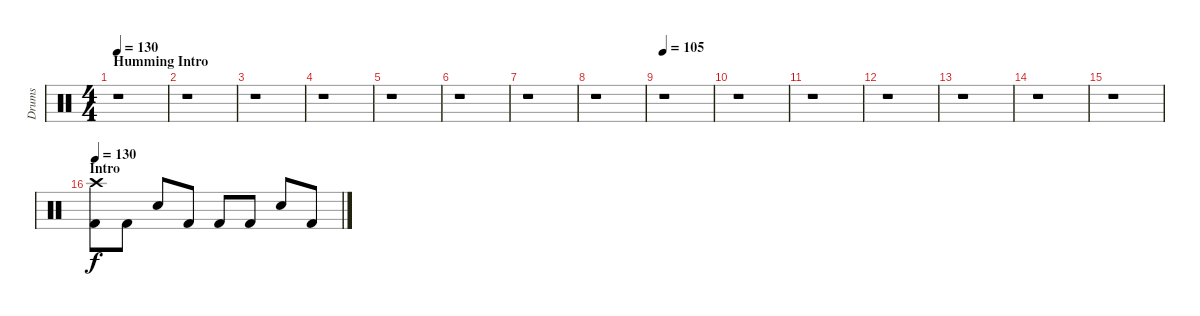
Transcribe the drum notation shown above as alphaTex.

\track ("Drums" "Drums") {instrument percussion}
\staff {score}
\articulation defaults
\ts (4 4)
\section ("" "Humming Intro")
\tempo 130
\tempo 105
\tempo 130
\clef neutral
\ks c
r.1{dy f} |
r.1 |
r.1 |
r.1 |
r.1 |
r.1 |
r.1 |
r.1 |
\tempo 105
r.1 |
r.1 |
r.1 |
r.1 |
r.1 |
r.1 |
r.1 |
\section ("" "Intro")
\tempo 130
("Crash high (hit)" "Kick (hit) 2").8 "Kick (hit) 2".8 "Electric Snare (hit)".8 "Kick (hit) 2".8 "Kick (hit) 2".8 "Kick (hit) 2".8 "Electric Snare (hit)".8 "Kick (hit) 2".8
